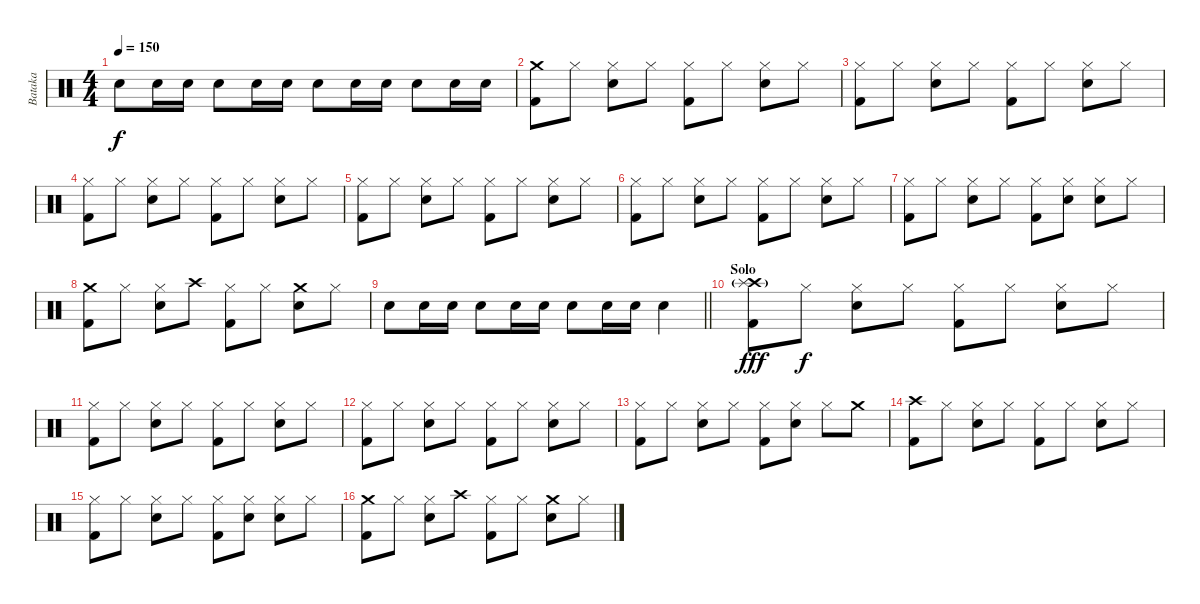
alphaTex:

\track ("Bataka" "Bataka") {instrument percussion}
\staff {score}
\articulation defaults
\ts (4 4)
\tempo 150
\clef neutral
\ks c "Snare (hit) 2".8{dy f} "Snare (hit) 2".16 "Snare (hit) 2".16 "Snare (hit) 2".8 "Snare (hit) 2".16 "Snare (hit) 2".16 "Snare (hit) 2".8 "Snare (hit) 2".16 "Snare (hit) 2".16 "Snare (hit) 2".8 "Snare (hit) 2".16 "Snare (hit) 2".16
|
("Crash medium (hit)" "Kick (hit) 2").8 "Hi-Hat (closed)".8 ("Hi-Hat (closed)" "Snare (hit) 2").8 "Hi-Hat (closed)".8 ("Hi-Hat (closed)" "Kick (hit) 2").8 "Hi-Hat (closed)".8 ("Hi-Hat (closed)" "Snare (hit) 2").8 "Hi-Hat (closed)".8 |
("Hi-Hat (closed)" "Kick (hit) 2").8 "Hi-Hat (closed)".8 ("Hi-Hat (closed)" "Snare (hit) 2").8 "Hi-Hat (closed)".8 ("Hi-Hat (closed)" "Kick (hit) 2").8 "Hi-Hat (closed)".8 ("Hi-Hat (closed)" "Snare (hit) 2").8 "Hi-Hat (closed)".8 |
("Hi-Hat (closed)" "Kick (hit) 2").8 "Hi-Hat (closed)".8 ("Hi-Hat (closed)" "Snare (hit) 2").8 "Hi-Hat (closed)".8 ("Hi-Hat (closed)" "Kick (hit) 2").8 "Hi-Hat (closed)".8 ("Hi-Hat (closed)" "Snare (hit) 2").8 "Hi-Hat (closed)".8 |
("Hi-Hat (closed)" "Kick (hit) 2").8 "Hi-Hat (closed)".8 ("Hi-Hat (closed)" "Snare (hit) 2").8 "Hi-Hat (closed)".8 ("Hi-Hat (closed)" "Kick (hit) 2").8 "Hi-Hat (closed)".8 ("Hi-Hat (closed)" "Snare (hit) 2").8 "Hi-Hat (closed)".8 |
("Hi-Hat (closed)" "Kick (hit) 2").8 "Hi-Hat (closed)".8 ("Hi-Hat (closed)" "Snare (hit) 2").8 "Hi-Hat (closed)".8 ("Hi-Hat (closed)" "Kick (hit) 2").8 "Hi-Hat (closed)".8 ("Hi-Hat (closed)" "Snare (hit) 2").8 "Hi-Hat (closed)".8 |
("Hi-Hat (closed)" "Kick (hit) 2").8 "Hi-Hat (closed)".8 ("Hi-Hat (closed)" "Snare (hit) 2").8 "Hi-Hat (closed)".8 ("Hi-Hat (closed)" "Kick (hit) 2").8 ("Hi-Hat (closed)" "Snare (hit) 2").8 ("Hi-Hat (closed)" "Snare (hit) 2").8 "Hi-Hat (closed)".8 |
("Crash medium (hit)" "Kick (hit) 2").8 "Hi-Hat (closed)".8 ("Hi-Hat (closed)" "Snare (hit) 2").8 "Crash high (hit)".8 ("Hi-Hat (closed)" "Kick (hit) 2").8 "Hi-Hat (closed)".8 ("Crash medium (hit)" "Snare (hit) 2").8 "Hi-Hat (closed)".8 |
\barLineRight lightlight "Snare (hit) 2".8 "Snare (hit) 2".16 "Snare (hit) 2".16 "Snare (hit) 2".8 "Snare (hit) 2".16 "Snare (hit) 2".16 "Snare (hit) 2".8 "Snare (hit) 2".16 "Snare (hit) 2".16 "Snare (hit) 2".4
|
\section ("" "Solo")
("Crash high (hit)"{g} "Splash (hit)" "Kick (hit) 2").8{dy fff} "Hi-Hat (closed)".8{dy f} ("Hi-Hat (closed)" "Snare (hit) 2").8 "Hi-Hat (closed)".8 ("Hi-Hat (closed)" "Kick (hit) 2").8 "Hi-Hat (closed)".8 ("Hi-Hat (closed)" "Snare (hit) 2").8 "Hi-Hat (closed)".8 |
("Hi-Hat (closed)" "Kick (hit) 2").8 "Hi-Hat (closed)".8 ("Hi-Hat (closed)" "Snare (hit) 2").8 "Hi-Hat (closed)".8 ("Hi-Hat (closed)" "Kick (hit) 2").8 "Hi-Hat (closed)".8 ("Hi-Hat (closed)" "Snare (hit) 2").8 "Hi-Hat (closed)".8 |
("Hi-Hat (closed)" "Kick (hit) 2").8 "Hi-Hat (closed)".8 ("Hi-Hat (closed)" "Snare (hit) 2").8 "Hi-Hat (closed)".8 ("Hi-Hat (closed)" "Kick (hit) 2").8 "Hi-Hat (closed)".8 ("Hi-Hat (closed)" "Snare (hit) 2").8 "Hi-Hat (closed)".8 |
("Hi-Hat (closed)" "Kick (hit) 2").8 "Hi-Hat (closed)".8 ("Hi-Hat (closed)" "Snare (hit) 2").8 "Hi-Hat (closed)".8 ("Hi-Hat (closed)" "Kick (hit) 2").8 ("Hi-Hat (closed)" "Snare (hit) 2").8 "Hi-Hat (closed)".8 "Crash medium (hit)".8 |
("Crash high (hit)" "Kick (hit) 2").8 "Hi-Hat (closed)".8 ("Hi-Hat (closed)" "Snare (hit) 2").8 "Hi-Hat (closed)".8 ("Hi-Hat (closed)" "Kick (hit) 2").8 "Hi-Hat (closed)".8 ("Hi-Hat (closed)" "Snare (hit) 2").8 "Hi-Hat (closed)".8 |
("Hi-Hat (closed)" "Kick (hit) 2").8 "Hi-Hat (closed)".8 ("Hi-Hat (closed)" "Snare (hit) 2").8 "Hi-Hat (closed)".8 ("Hi-Hat (closed)" "Kick (hit) 2").8 ("Hi-Hat (closed)" "Snare (hit) 2").8 ("Hi-Hat (closed)" "Snare (hit) 2").8 "Hi-Hat (closed)".8 |
("Crash medium (hit)" "Kick (hit) 2").8 "Hi-Hat (closed)".8 ("Hi-Hat (closed)" "Snare (hit) 2").8 "Crash high (hit)".8 ("Hi-Hat (closed)" "Kick (hit) 2").8 "Hi-Hat (closed)".8 ("Crash medium (hit)" "Snare (hit) 2").8 "Hi-Hat (closed)".8
